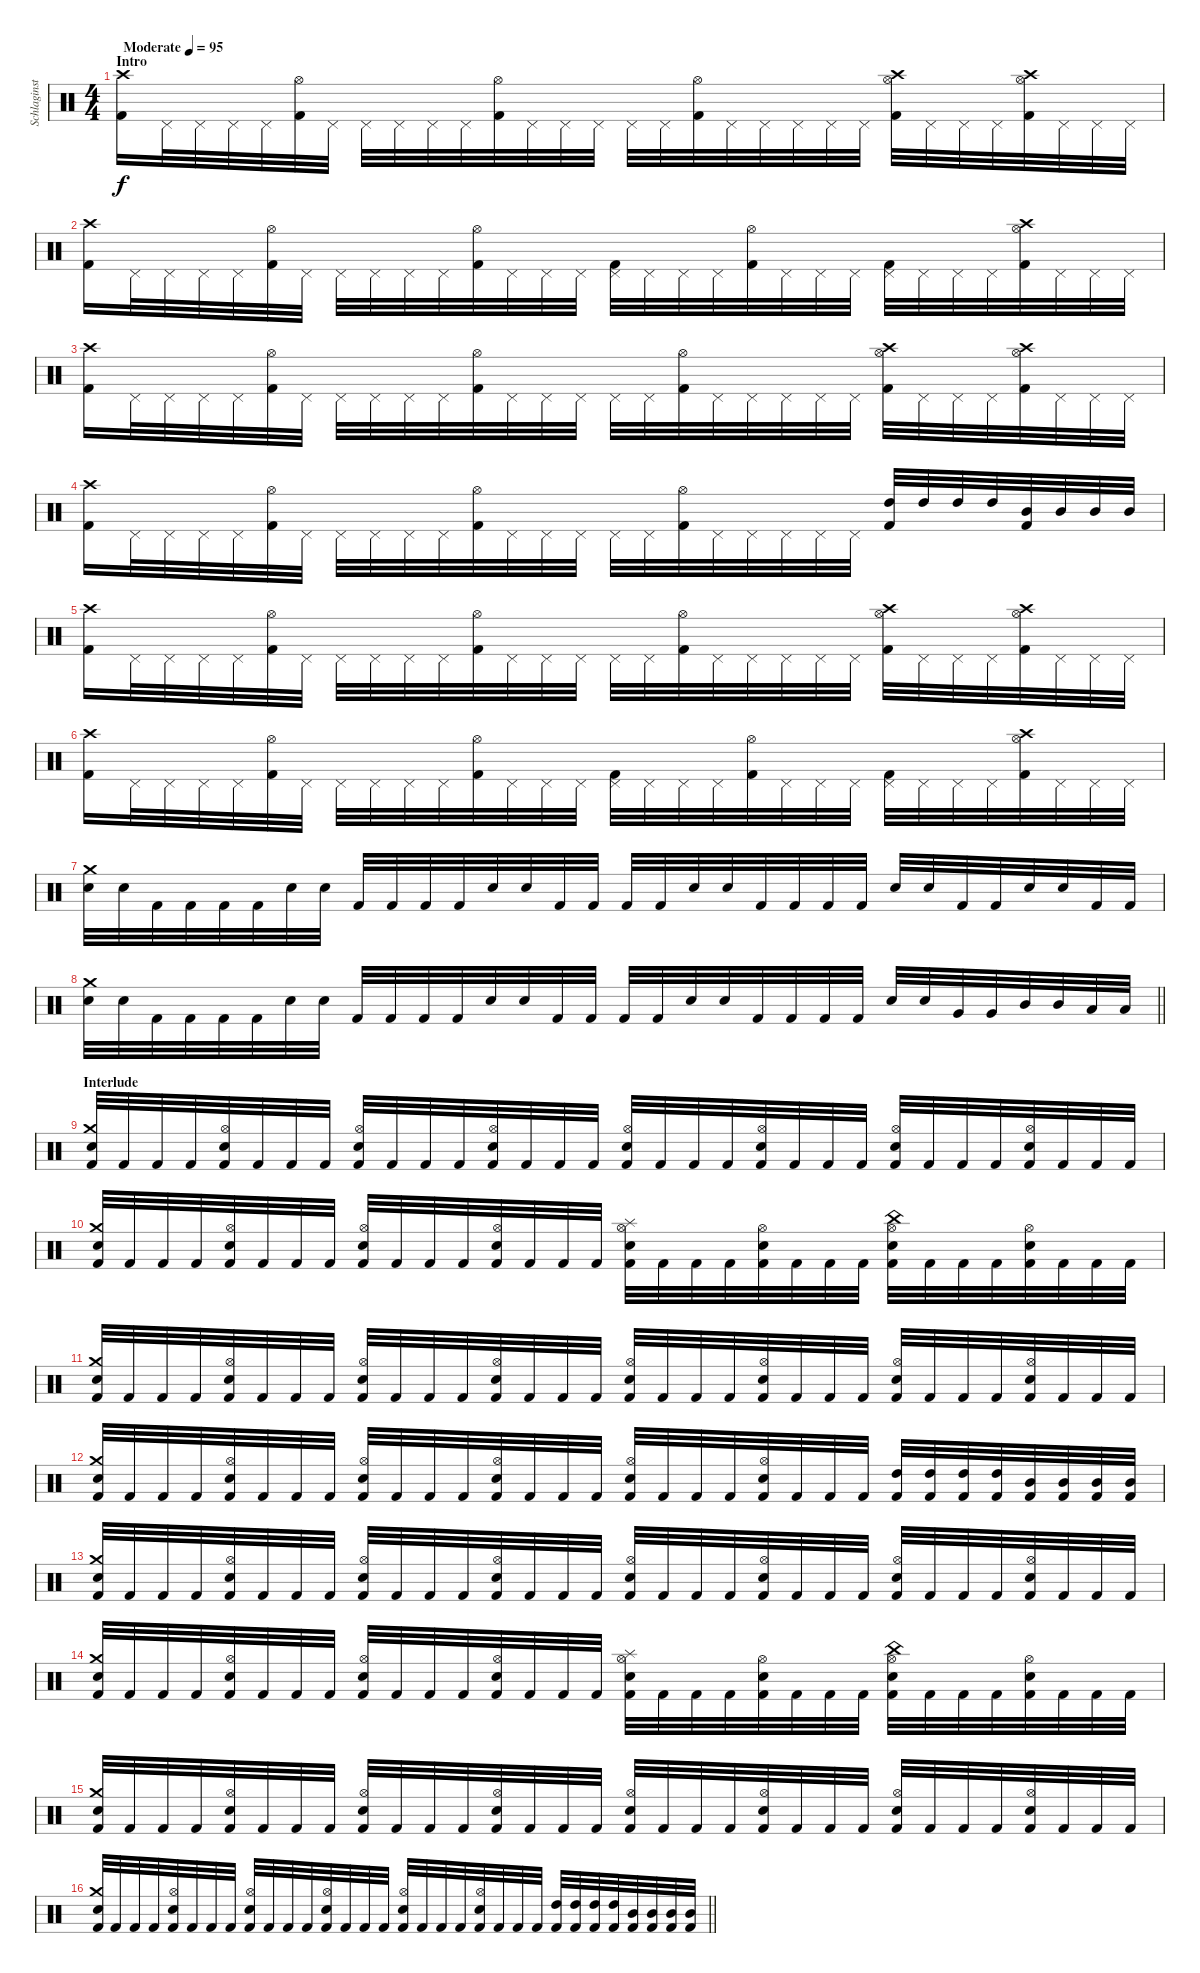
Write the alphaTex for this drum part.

\track ("Schlaginstrumente - Auswahl" "Schlaginst") {instrument percussion}
\staff {score}
\articulation defaults
\ts (4 4)
\section ("" "Intro")
\tempo (95 "Moderate")
\clef neutral
\ks c
("Crash high (hit)" "Kick (hit) 2").16{dy f} "Pedal Hi-Hat (hit)".32 "Pedal Hi-Hat (hit)".32 "Pedal Hi-Hat (hit)".32 "Pedal Hi-Hat (hit)".32 ("Hi-Hat (open)" "Kick (hit) 2").32 "Pedal Hi-Hat (hit)".32 "Pedal Hi-Hat (hit)".32 "Pedal Hi-Hat (hit)".32 "Pedal Hi-Hat (hit)".32 "Pedal Hi-Hat (hit)".32 ("Hi-Hat (open)" "Kick (hit) 2").32 "Pedal Hi-Hat (hit)".32 "Pedal Hi-Hat (hit)".32 "Pedal Hi-Hat (hit)".32 "Pedal Hi-Hat (hit)".32 "Pedal Hi-Hat (hit)".32 ("Hi-Hat (open)" "Kick (hit) 2").32 "Pedal Hi-Hat (hit)".32 "Pedal Hi-Hat (hit)".32 "Pedal Hi-Hat (hit)".32 "Pedal Hi-Hat (hit)".32 "Pedal Hi-Hat (hit)".32 ("Crash high (hit)" "Hi-Hat (open)" "Kick (hit) 2").32 "Pedal Hi-Hat (hit)".32 "Pedal Hi-Hat (hit)".32 "Pedal Hi-Hat (hit)".32 ("Crash high (hit)" "Hi-Hat (open)" "Kick (hit) 2").32 "Pedal Hi-Hat (hit)".32 "Pedal Hi-Hat (hit)".32 "Pedal Hi-Hat (hit)".32 |
("Crash high (hit)" "Kick (hit) 2").16 "Pedal Hi-Hat (hit)".32 "Pedal Hi-Hat (hit)".32 "Pedal Hi-Hat (hit)".32 "Pedal Hi-Hat (hit)".32 ("Hi-Hat (open)" "Kick (hit) 2").32 "Pedal Hi-Hat (hit)".32 "Pedal Hi-Hat (hit)".32 "Pedal Hi-Hat (hit)".32 "Pedal Hi-Hat (hit)".32 "Pedal Hi-Hat (hit)".32 ("Hi-Hat (open)" "Kick (hit) 2").32 "Pedal Hi-Hat (hit)".32 "Pedal Hi-Hat (hit)".32 "Pedal Hi-Hat (hit)".32 ("Pedal Hi-Hat (hit)" "Kick (hit) 2").32 "Pedal Hi-Hat (hit)".32 "Pedal Hi-Hat (hit)".32 "Pedal Hi-Hat (hit)".32 ("Hi-Hat (open)" "Kick (hit) 2").32 "Pedal Hi-Hat (hit)".32 "Pedal Hi-Hat (hit)".32 "Pedal Hi-Hat (hit)".32 ("Pedal Hi-Hat (hit)" "Kick (hit) 2").32 "Pedal Hi-Hat (hit)".32 "Pedal Hi-Hat (hit)".32 "Pedal Hi-Hat (hit)".32 ("Crash high (hit)" "Hi-Hat (open)" "Kick (hit) 2").32 "Pedal Hi-Hat (hit)".32 "Pedal Hi-Hat (hit)".32 "Pedal Hi-Hat (hit)".32 |
("Crash high (hit)" "Kick (hit) 2").16 "Pedal Hi-Hat (hit)".32 "Pedal Hi-Hat (hit)".32 "Pedal Hi-Hat (hit)".32 "Pedal Hi-Hat (hit)".32 ("Hi-Hat (open)" "Kick (hit) 2").32 "Pedal Hi-Hat (hit)".32 "Pedal Hi-Hat (hit)".32 "Pedal Hi-Hat (hit)".32 "Pedal Hi-Hat (hit)".32 "Pedal Hi-Hat (hit)".32 ("Hi-Hat (open)" "Kick (hit) 2").32 "Pedal Hi-Hat (hit)".32 "Pedal Hi-Hat (hit)".32 "Pedal Hi-Hat (hit)".32 "Pedal Hi-Hat (hit)".32 "Pedal Hi-Hat (hit)".32 ("Hi-Hat (open)" "Kick (hit) 2").32 "Pedal Hi-Hat (hit)".32 "Pedal Hi-Hat (hit)".32 "Pedal Hi-Hat (hit)".32 "Pedal Hi-Hat (hit)".32 "Pedal Hi-Hat (hit)".32 ("Crash high (hit)" "Hi-Hat (open)" "Kick (hit) 2").32 "Pedal Hi-Hat (hit)".32 "Pedal Hi-Hat (hit)".32 "Pedal Hi-Hat (hit)".32 ("Crash high (hit)" "Hi-Hat (open)" "Kick (hit) 2").32 "Pedal Hi-Hat (hit)".32 "Pedal Hi-Hat (hit)".32 "Pedal Hi-Hat (hit)".32 |
("Crash high (hit)" "Kick (hit) 2").16 "Pedal Hi-Hat (hit)".32 "Pedal Hi-Hat (hit)".32 "Pedal Hi-Hat (hit)".32 "Pedal Hi-Hat (hit)".32 ("Hi-Hat (open)" "Kick (hit) 2").32 "Pedal Hi-Hat (hit)".32 "Pedal Hi-Hat (hit)".32 "Pedal Hi-Hat (hit)".32 "Pedal Hi-Hat (hit)".32 "Pedal Hi-Hat (hit)".32 ("Hi-Hat (open)" "Kick (hit) 2").32 "Pedal Hi-Hat (hit)".32 "Pedal Hi-Hat (hit)".32 "Pedal Hi-Hat (hit)".32 "Pedal Hi-Hat (hit)".32 "Pedal Hi-Hat (hit)".32 ("Hi-Hat (open)" "Kick (hit) 2").32 "Pedal Hi-Hat (hit)".32 "Pedal Hi-Hat (hit)".32 "Pedal Hi-Hat (hit)".32 "Pedal Hi-Hat (hit)".32 "Pedal Hi-Hat (hit)".32 ("High Tom (hit)" "Kick (hit) 2").32 "High Tom (hit)".32 "High Tom (hit)".32 "High Tom (hit)".32 ("Mid Tom (hit)" "Kick (hit) 2").32 "Mid Tom (hit)".32 "Mid Tom (hit)".32 "Mid Tom (hit)".32 |
("Crash high (hit)" "Kick (hit) 2").16 "Pedal Hi-Hat (hit)".32 "Pedal Hi-Hat (hit)".32 "Pedal Hi-Hat (hit)".32 "Pedal Hi-Hat (hit)".32 ("Hi-Hat (open)" "Kick (hit) 2").32 "Pedal Hi-Hat (hit)".32 "Pedal Hi-Hat (hit)".32 "Pedal Hi-Hat (hit)".32 "Pedal Hi-Hat (hit)".32 "Pedal Hi-Hat (hit)".32 ("Hi-Hat (open)" "Kick (hit) 2").32 "Pedal Hi-Hat (hit)".32 "Pedal Hi-Hat (hit)".32 "Pedal Hi-Hat (hit)".32 "Pedal Hi-Hat (hit)".32 "Pedal Hi-Hat (hit)".32 ("Hi-Hat (open)" "Kick (hit) 2").32 "Pedal Hi-Hat (hit)".32 "Pedal Hi-Hat (hit)".32 "Pedal Hi-Hat (hit)".32 "Pedal Hi-Hat (hit)".32 "Pedal Hi-Hat (hit)".32 ("Crash high (hit)" "Hi-Hat (open)" "Kick (hit) 2").32 "Pedal Hi-Hat (hit)".32 "Pedal Hi-Hat (hit)".32 "Pedal Hi-Hat (hit)".32 ("Crash high (hit)" "Hi-Hat (open)" "Kick (hit) 2").32 "Pedal Hi-Hat (hit)".32 "Pedal Hi-Hat (hit)".32 "Pedal Hi-Hat (hit)".32 |
("Crash high (hit)" "Kick (hit) 2").16 "Pedal Hi-Hat (hit)".32 "Pedal Hi-Hat (hit)".32 "Pedal Hi-Hat (hit)".32 "Pedal Hi-Hat (hit)".32 ("Hi-Hat (open)" "Kick (hit) 2").32 "Pedal Hi-Hat (hit)".32 "Pedal Hi-Hat (hit)".32 "Pedal Hi-Hat (hit)".32 "Pedal Hi-Hat (hit)".32 "Pedal Hi-Hat (hit)".32 ("Hi-Hat (open)" "Kick (hit) 2").32 "Pedal Hi-Hat (hit)".32 "Pedal Hi-Hat (hit)".32 "Pedal Hi-Hat (hit)".32 ("Pedal Hi-Hat (hit)" "Kick (hit) 2").32 "Pedal Hi-Hat (hit)".32 "Pedal Hi-Hat (hit)".32 "Pedal Hi-Hat (hit)".32 ("Hi-Hat (open)" "Kick (hit) 2").32 "Pedal Hi-Hat (hit)".32 "Pedal Hi-Hat (hit)".32 "Pedal Hi-Hat (hit)".32 ("Pedal Hi-Hat (hit)" "Kick (hit) 2").32 "Pedal Hi-Hat (hit)".32 "Pedal Hi-Hat (hit)".32 "Pedal Hi-Hat (hit)".32 ("Crash high (hit)" "Hi-Hat (open)" "Kick (hit) 2").32 "Pedal Hi-Hat (hit)".32 "Pedal Hi-Hat (hit)".32 "Pedal Hi-Hat (hit)".32 |
("Crash medium (hit)" "Snare (hit) 2").32 "Snare (hit) 2".32 "Kick (hit) 2".32 "Kick (hit) 2".32 "Kick (hit) 2".32 "Kick (hit) 2".32 "Snare (hit) 2".32 "Snare (hit) 2".32 "Kick (hit) 2".32 "Kick (hit) 2".32 "Kick (hit) 2".32 "Kick (hit) 2".32 "Snare (hit) 2".32 "Snare (hit) 2".32 "Kick (hit) 2".32 "Kick (hit) 2".32 "Kick (hit) 2".32 "Kick (hit) 2".32 "Snare (hit) 2".32 "Snare (hit) 2".32 "Kick (hit) 2".32 "Kick (hit) 2".32 "Kick (hit) 2".32 "Kick (hit) 2".32 "Snare (hit) 2".32 "Snare (hit) 2".32 "Kick (hit) 2".32 "Kick (hit) 2".32 "Snare (hit) 2".32 "Snare (hit) 2".32 "Kick (hit) 2".32 "Kick (hit) 2".32 |
\barLineRight lightlight
("Crash medium (hit)" "Snare (hit) 2").32 "Snare (hit) 2".32 "Kick (hit) 2".32 "Kick (hit) 2".32 "Kick (hit) 2".32 "Kick (hit) 2".32 "Snare (hit) 2".32 "Snare (hit) 2".32 "Kick (hit) 2".32 "Kick (hit) 2".32 "Kick (hit) 2".32 "Kick (hit) 2".32 "Snare (hit) 2".32 "Snare (hit) 2".32 "Kick (hit) 2".32 "Kick (hit) 2".32 "Kick (hit) 2".32 "Kick (hit) 2".32 "Snare (hit) 2".32 "Snare (hit) 2".32 "Kick (hit) 2".32 "Kick (hit) 2".32 "Kick (hit) 2".32 "Kick (hit) 2".32 "Snare (hit) 2".32 "Snare (hit) 2".32 "Very Low Tom (hit)".32 "Very Low Tom (hit)".32 "Mid Tom (hit)".32 "Mid Tom (hit)".32 "Low Tom (hit)".32 "Low Tom (hit)".32 |
\section ("" "Interlude")
("Crash medium (hit)" "Snare (hit) 2" "Kick (hit) 2").32 "Kick (hit) 2".32 "Kick (hit) 2".32 "Kick (hit) 2".32 ("Snare (hit) 2" "Hi-Hat (open)" "Kick (hit) 2").32 "Kick (hit) 2".32 "Kick (hit) 2".32 "Kick (hit) 2".32 ("Snare (hit) 2" "Hi-Hat (open)" "Kick (hit) 2").32 "Kick (hit) 2".32 "Kick (hit) 2".32 "Kick (hit) 2".32 ("Snare (hit) 2" "Hi-Hat (open)" "Kick (hit) 2").32 "Kick (hit) 2".32 "Kick (hit) 2".32 "Kick (hit) 2".32 ("Snare (hit) 2" "Hi-Hat (open)" "Kick (hit) 2").32 "Kick (hit) 2".32 "Kick (hit) 2".32 "Kick (hit) 2".32 ("Snare (hit) 2" "Hi-Hat (open)" "Kick (hit) 2").32 "Kick (hit) 2".32 "Kick (hit) 2".32 "Kick (hit) 2".32 ("Snare (hit) 2" "Hi-Hat (open)" "Kick (hit) 2").32 "Kick (hit) 2".32 "Kick (hit) 2".32 "Kick (hit) 2".32 ("Snare (hit) 2" "Hi-Hat (open)" "Kick (hit) 2").32 "Kick (hit) 2".32 "Kick (hit) 2".32 "Kick (hit) 2".32 |
("Crash medium (hit)" "Snare (hit) 2" "Kick (hit) 2").32 "Kick (hit) 2".32 "Kick (hit) 2".32 "Kick (hit) 2".32 ("Snare (hit) 2" "Hi-Hat (open)" "Kick (hit) 2").32 "Kick (hit) 2".32 "Kick (hit) 2".32 "Kick (hit) 2".32 ("Snare (hit) 2" "Hi-Hat (open)" "Kick (hit) 2").32 "Kick (hit) 2".32 "Kick (hit) 2".32 "Kick (hit) 2".32 ("Snare (hit) 2" "Hi-Hat (open)" "Kick (hit) 2").32 "Kick (hit) 2".32 "Kick (hit) 2".32 "Kick (hit) 2".32 ("Splash (hit)" "Snare (hit) 2" "Hi-Hat (open)" "Kick (hit) 2").32 "Kick (hit) 2".32 "Kick (hit) 2".32 "Kick (hit) 2".32 ("Snare (hit) 2" "Hi-Hat (open)" "Kick (hit) 2").32 "Kick (hit) 2".32 "Kick (hit) 2".32 "Kick (hit) 2".32 ("China (hit)" "Snare (hit) 2" "Hi-Hat (open)" "Kick (hit) 2").32 "Kick (hit) 2".32 "Kick (hit) 2".32 "Kick (hit) 2".32 ("Snare (hit) 2" "Hi-Hat (open)" "Kick (hit) 2").32 "Kick (hit) 2".32 "Kick (hit) 2".32 "Kick (hit) 2".32 |
("Crash medium (hit)" "Snare (hit) 2" "Kick (hit) 2").32 "Kick (hit) 2".32 "Kick (hit) 2".32 "Kick (hit) 2".32 ("Snare (hit) 2" "Hi-Hat (open)" "Kick (hit) 2").32 "Kick (hit) 2".32 "Kick (hit) 2".32 "Kick (hit) 2".32 ("Snare (hit) 2" "Hi-Hat (open)" "Kick (hit) 2").32 "Kick (hit) 2".32 "Kick (hit) 2".32 "Kick (hit) 2".32 ("Snare (hit) 2" "Hi-Hat (open)" "Kick (hit) 2").32 "Kick (hit) 2".32 "Kick (hit) 2".32 "Kick (hit) 2".32 ("Snare (hit) 2" "Hi-Hat (open)" "Kick (hit) 2").32 "Kick (hit) 2".32 "Kick (hit) 2".32 "Kick (hit) 2".32 ("Snare (hit) 2" "Hi-Hat (open)" "Kick (hit) 2").32 "Kick (hit) 2".32 "Kick (hit) 2".32 "Kick (hit) 2".32 ("Snare (hit) 2" "Hi-Hat (open)" "Kick (hit) 2").32 "Kick (hit) 2".32 "Kick (hit) 2".32 "Kick (hit) 2".32 ("Snare (hit) 2" "Hi-Hat (open)" "Kick (hit) 2").32 "Kick (hit) 2".32 "Kick (hit) 2".32 "Kick (hit) 2".32 |
("Crash medium (hit)" "Snare (hit) 2" "Kick (hit) 2").32 "Kick (hit) 2".32 "Kick (hit) 2".32 "Kick (hit) 2".32 ("Snare (hit) 2" "Hi-Hat (open)" "Kick (hit) 2").32 "Kick (hit) 2".32 "Kick (hit) 2".32 "Kick (hit) 2".32 ("Snare (hit) 2" "Hi-Hat (open)" "Kick (hit) 2").32 "Kick (hit) 2".32 "Kick (hit) 2".32 "Kick (hit) 2".32 ("Snare (hit) 2" "Hi-Hat (open)" "Kick (hit) 2").32 "Kick (hit) 2".32 "Kick (hit) 2".32 "Kick (hit) 2".32 ("Snare (hit) 2" "Hi-Hat (open)" "Kick (hit) 2").32 "Kick (hit) 2".32 "Kick (hit) 2".32 "Kick (hit) 2".32 ("Snare (hit) 2" "Hi-Hat (open)" "Kick (hit) 2").32 "Kick (hit) 2".32 "Kick (hit) 2".32 "Kick (hit) 2".32 ("High Tom (hit)" "Kick (hit) 2").32 ("High Tom (hit)" "Kick (hit) 2").32 ("High Tom (hit)" "Kick (hit) 2").32 ("High Tom (hit)" "Kick (hit) 2").32 ("Mid Tom (hit)" "Kick (hit) 2").32 ("Mid Tom (hit)" "Kick (hit) 2").32 ("Mid Tom (hit)" "Kick (hit) 2").32 ("Mid Tom (hit)" "Kick (hit) 2").32 |
("Crash medium (hit)" "Snare (hit) 2" "Kick (hit) 2").32 "Kick (hit) 2".32 "Kick (hit) 2".32 "Kick (hit) 2".32 ("Snare (hit) 2" "Hi-Hat (open)" "Kick (hit) 2").32 "Kick (hit) 2".32 "Kick (hit) 2".32 "Kick (hit) 2".32 ("Snare (hit) 2" "Hi-Hat (open)" "Kick (hit) 2").32 "Kick (hit) 2".32 "Kick (hit) 2".32 "Kick (hit) 2".32 ("Snare (hit) 2" "Hi-Hat (open)" "Kick (hit) 2").32 "Kick (hit) 2".32 "Kick (hit) 2".32 "Kick (hit) 2".32 ("Snare (hit) 2" "Hi-Hat (open)" "Kick (hit) 2").32 "Kick (hit) 2".32 "Kick (hit) 2".32 "Kick (hit) 2".32 ("Snare (hit) 2" "Hi-Hat (open)" "Kick (hit) 2").32 "Kick (hit) 2".32 "Kick (hit) 2".32 "Kick (hit) 2".32 ("Snare (hit) 2" "Hi-Hat (open)" "Kick (hit) 2").32 "Kick (hit) 2".32 "Kick (hit) 2".32 "Kick (hit) 2".32 ("Snare (hit) 2" "Hi-Hat (open)" "Kick (hit) 2").32 "Kick (hit) 2".32 "Kick (hit) 2".32 "Kick (hit) 2".32 |
("Crash medium (hit)" "Snare (hit) 2" "Kick (hit) 2").32 "Kick (hit) 2".32 "Kick (hit) 2".32 "Kick (hit) 2".32 ("Snare (hit) 2" "Hi-Hat (open)" "Kick (hit) 2").32 "Kick (hit) 2".32 "Kick (hit) 2".32 "Kick (hit) 2".32 ("Snare (hit) 2" "Hi-Hat (open)" "Kick (hit) 2").32 "Kick (hit) 2".32 "Kick (hit) 2".32 "Kick (hit) 2".32 ("Snare (hit) 2" "Hi-Hat (open)" "Kick (hit) 2").32 "Kick (hit) 2".32 "Kick (hit) 2".32 "Kick (hit) 2".32 ("Splash (hit)" "Snare (hit) 2" "Hi-Hat (open)" "Kick (hit) 2").32 "Kick (hit) 2".32 "Kick (hit) 2".32 "Kick (hit) 2".32 ("Snare (hit) 2" "Hi-Hat (open)" "Kick (hit) 2").32 "Kick (hit) 2".32 "Kick (hit) 2".32 "Kick (hit) 2".32 ("China (hit)" "Snare (hit) 2" "Hi-Hat (open)" "Kick (hit) 2").32 "Kick (hit) 2".32 "Kick (hit) 2".32 "Kick (hit) 2".32 ("Snare (hit) 2" "Hi-Hat (open)" "Kick (hit) 2").32 "Kick (hit) 2".32 "Kick (hit) 2".32 "Kick (hit) 2".32 |
("Crash medium (hit)" "Snare (hit) 2" "Kick (hit) 2").32 "Kick (hit) 2".32 "Kick (hit) 2".32 "Kick (hit) 2".32 ("Snare (hit) 2" "Hi-Hat (open)" "Kick (hit) 2").32 "Kick (hit) 2".32 "Kick (hit) 2".32 "Kick (hit) 2".32 ("Snare (hit) 2" "Hi-Hat (open)" "Kick (hit) 2").32 "Kick (hit) 2".32 "Kick (hit) 2".32 "Kick (hit) 2".32 ("Snare (hit) 2" "Hi-Hat (open)" "Kick (hit) 2").32 "Kick (hit) 2".32 "Kick (hit) 2".32 "Kick (hit) 2".32 ("Snare (hit) 2" "Hi-Hat (open)" "Kick (hit) 2").32 "Kick (hit) 2".32 "Kick (hit) 2".32 "Kick (hit) 2".32 ("Snare (hit) 2" "Hi-Hat (open)" "Kick (hit) 2").32 "Kick (hit) 2".32 "Kick (hit) 2".32 "Kick (hit) 2".32 ("Snare (hit) 2" "Hi-Hat (open)" "Kick (hit) 2").32 "Kick (hit) 2".32 "Kick (hit) 2".32 "Kick (hit) 2".32 ("Snare (hit) 2" "Hi-Hat (open)" "Kick (hit) 2").32 "Kick (hit) 2".32 "Kick (hit) 2".32 "Kick (hit) 2".32 |
\barLineRight lightlight
("Crash medium (hit)" "Snare (hit) 2" "Kick (hit) 2").32 "Kick (hit) 2".32 "Kick (hit) 2".32 "Kick (hit) 2".32 ("Snare (hit) 2" "Hi-Hat (open)" "Kick (hit) 2").32 "Kick (hit) 2".32 "Kick (hit) 2".32 "Kick (hit) 2".32 ("Snare (hit) 2" "Hi-Hat (open)" "Kick (hit) 2").32 "Kick (hit) 2".32 "Kick (hit) 2".32 "Kick (hit) 2".32 ("Snare (hit) 2" "Hi-Hat (open)" "Kick (hit) 2").32 "Kick (hit) 2".32 "Kick (hit) 2".32 "Kick (hit) 2".32 ("Snare (hit) 2" "Hi-Hat (open)" "Kick (hit) 2").32 "Kick (hit) 2".32 "Kick (hit) 2".32 "Kick (hit) 2".32 ("Snare (hit) 2" "Hi-Hat (open)" "Kick (hit) 2").32 "Kick (hit) 2".32 "Kick (hit) 2".32 "Kick (hit) 2".32 ("High Tom (hit)" "Kick (hit) 2").32 ("High Tom (hit)" "Kick (hit) 2").32 ("High Tom (hit)" "Kick (hit) 2").32 ("High Tom (hit)" "Kick (hit) 2").32 ("Mid Tom (hit)" "Kick (hit) 2").32 ("Mid Tom (hit)" "Kick (hit) 2").32 ("Mid Tom (hit)" "Kick (hit) 2").32 ("Mid Tom (hit)" "Kick (hit) 2").32
